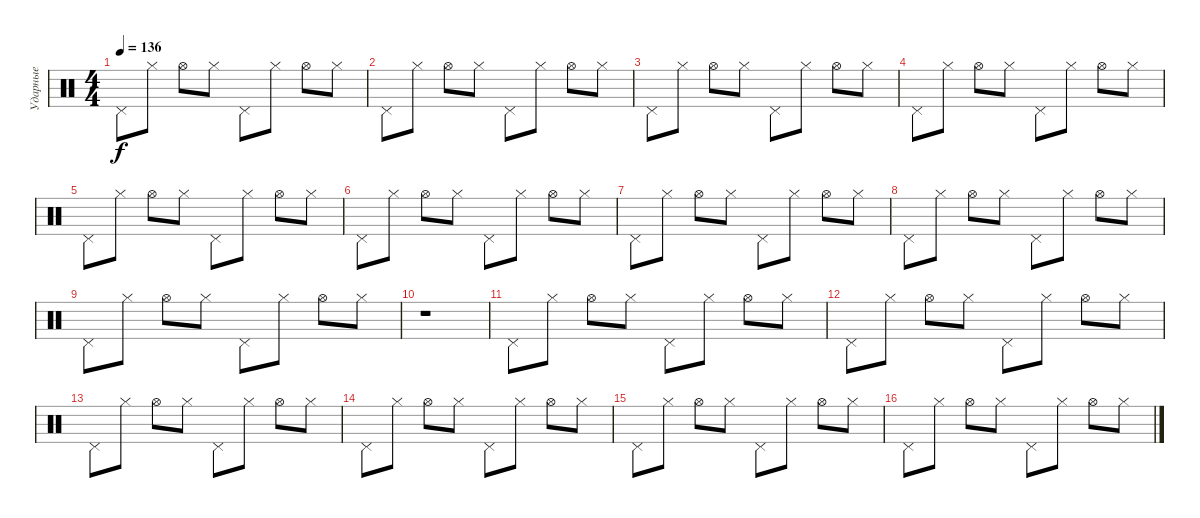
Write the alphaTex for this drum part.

\track ("Ударные" "Ударные") {instrument percussion}
\staff {score}
\articulation defaults
\ts (4 4)
\tempo 136
\clef neutral
\ks c "Pedal Hi-Hat (hit)".8{dy f} "Hi-Hat (closed)".8 "Hi-Hat (open)".8 "Hi-Hat (closed)".8 "Pedal Hi-Hat (hit)".8 "Hi-Hat (closed)".8 "Hi-Hat (open)".8 "Hi-Hat (closed)".8
|
"Pedal Hi-Hat (hit)".8 "Hi-Hat (closed)".8 "Hi-Hat (open)".8 "Hi-Hat (closed)".8 "Pedal Hi-Hat (hit)".8 "Hi-Hat (closed)".8 "Hi-Hat (open)".8 "Hi-Hat (closed)".8 |
"Pedal Hi-Hat (hit)".8 "Hi-Hat (closed)".8 "Hi-Hat (open)".8 "Hi-Hat (closed)".8 "Pedal Hi-Hat (hit)".8 "Hi-Hat (closed)".8 "Hi-Hat (open)".8 "Hi-Hat (closed)".8 |
"Pedal Hi-Hat (hit)".8 "Hi-Hat (closed)".8 "Hi-Hat (open)".8 "Hi-Hat (closed)".8 "Pedal Hi-Hat (hit)".8 "Hi-Hat (closed)".8 "Hi-Hat (open)".8 "Hi-Hat (closed)".8 |
"Pedal Hi-Hat (hit)".8 "Hi-Hat (closed)".8 "Hi-Hat (open)".8 "Hi-Hat (closed)".8 "Pedal Hi-Hat (hit)".8 "Hi-Hat (closed)".8 "Hi-Hat (open)".8 "Hi-Hat (closed)".8 |
"Pedal Hi-Hat (hit)".8 "Hi-Hat (closed)".8 "Hi-Hat (open)".8 "Hi-Hat (closed)".8 "Pedal Hi-Hat (hit)".8 "Hi-Hat (closed)".8 "Hi-Hat (open)".8 "Hi-Hat (closed)".8 |
"Pedal Hi-Hat (hit)".8 "Hi-Hat (closed)".8 "Hi-Hat (open)".8 "Hi-Hat (closed)".8 "Pedal Hi-Hat (hit)".8 "Hi-Hat (closed)".8 "Hi-Hat (open)".8 "Hi-Hat (closed)".8 |
"Pedal Hi-Hat (hit)".8 "Hi-Hat (closed)".8 "Hi-Hat (open)".8 "Hi-Hat (closed)".8 "Pedal Hi-Hat (hit)".8 "Hi-Hat (closed)".8 "Hi-Hat (open)".8 "Hi-Hat (closed)".8 |
"Pedal Hi-Hat (hit)".8 "Hi-Hat (closed)".8 "Hi-Hat (open)".8 "Hi-Hat (closed)".8 "Pedal Hi-Hat (hit)".8 "Hi-Hat (closed)".8 "Hi-Hat (open)".8 "Hi-Hat (closed)".8 |
r.1 |
"Pedal Hi-Hat (hit)".8 "Hi-Hat (closed)".8 "Hi-Hat (open)".8 "Hi-Hat (closed)".8 "Pedal Hi-Hat (hit)".8 "Hi-Hat (closed)".8 "Hi-Hat (open)".8 "Hi-Hat (closed)".8 |
"Pedal Hi-Hat (hit)".8 "Hi-Hat (closed)".8 "Hi-Hat (open)".8 "Hi-Hat (closed)".8 "Pedal Hi-Hat (hit)".8 "Hi-Hat (closed)".8 "Hi-Hat (open)".8 "Hi-Hat (closed)".8 |
"Pedal Hi-Hat (hit)".8 "Hi-Hat (closed)".8 "Hi-Hat (open)".8 "Hi-Hat (closed)".8 "Pedal Hi-Hat (hit)".8 "Hi-Hat (closed)".8 "Hi-Hat (open)".8 "Hi-Hat (closed)".8 |
"Pedal Hi-Hat (hit)".8 "Hi-Hat (closed)".8 "Hi-Hat (open)".8 "Hi-Hat (closed)".8 "Pedal Hi-Hat (hit)".8 "Hi-Hat (closed)".8 "Hi-Hat (open)".8 "Hi-Hat (closed)".8 |
"Pedal Hi-Hat (hit)".8 "Hi-Hat (closed)".8 "Hi-Hat (open)".8 "Hi-Hat (closed)".8 "Pedal Hi-Hat (hit)".8 "Hi-Hat (closed)".8 "Hi-Hat (open)".8 "Hi-Hat (closed)".8 |
"Pedal Hi-Hat (hit)".8 "Hi-Hat (closed)".8 "Hi-Hat (open)".8 "Hi-Hat (closed)".8 "Pedal Hi-Hat (hit)".8 "Hi-Hat (closed)".8 "Hi-Hat (open)".8 "Hi-Hat (closed)".8
